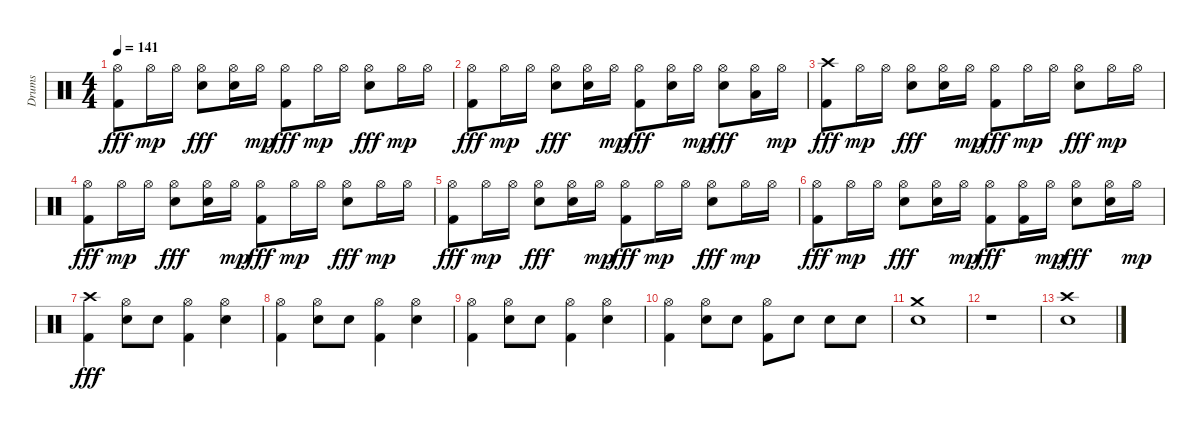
\track ("Drums" "Drums") {instrument percussion}
\staff {score}
\articulation defaults
\ts (4 4)
\tempo 141
\clef neutral
\ks c
("Hi-Hat (open)" "Kick (hit) 2").8{dy fff} "Hi-Hat (open)".16{dy mp} "Hi-Hat (open)".16 ("Hi-Hat (open)" "Electric Snare (hit)").8{dy fff} ("Hi-Hat (open)" "Electric Snare (hit)").16 "Hi-Hat (open)".16{dy mp} ("Hi-Hat (open)" "Kick (hit) 2").8{dy fff} "Hi-Hat (open)".16{dy mp} "Hi-Hat (open)".16 ("Hi-Hat (open)" "Electric Snare (hit)").8{dy fff} "Hi-Hat (open)".16{dy mp} "Hi-Hat (open)".16 |
("Hi-Hat (open)" "Kick (hit) 2").8{dy fff} "Hi-Hat (open)".16{dy mp} "Hi-Hat (open)".16 ("Hi-Hat (open)" "Electric Snare (hit)").8{dy fff} ("Hi-Hat (open)" "Electric Snare (hit)").16 "Hi-Hat (open)".16{dy mp} ("Hi-Hat (open)" "Kick (hit) 2").8{dy fff} ("Hi-Hat (open)" "Electric Snare (hit)").16 "Hi-Hat (open)".16{dy mp} ("Hi-Hat (open)" "Electric Snare (hit)").8{dy fff} ("Hi-Hat (open)" "Low Tom (hit)").16 "Hi-Hat (open)".16{dy mp} |
("Crash high (hit)" "Kick (hit) 2").8{dy fff} "Hi-Hat (open)".16{dy mp} "Hi-Hat (open)".16 ("Hi-Hat (open)" "Electric Snare (hit)").8{dy fff} ("Hi-Hat (open)" "Electric Snare (hit)").16 "Hi-Hat (open)".16{dy mp} ("Hi-Hat (open)" "Kick (hit) 2").8{dy fff} "Hi-Hat (open)".16{dy mp} "Hi-Hat (open)".16 ("Hi-Hat (open)" "Electric Snare (hit)").8{dy fff} "Hi-Hat (open)".16{dy mp} "Hi-Hat (open)".16 |
("Hi-Hat (open)" "Kick (hit) 2").8{dy fff} "Hi-Hat (open)".16{dy mp} "Hi-Hat (open)".16 ("Hi-Hat (open)" "Electric Snare (hit)").8{dy fff} ("Hi-Hat (open)" "Electric Snare (hit)").16 "Hi-Hat (open)".16{dy mp} ("Hi-Hat (open)" "Kick (hit) 2").8{dy fff} "Hi-Hat (open)".16{dy mp} "Hi-Hat (open)".16 ("Hi-Hat (open)" "Electric Snare (hit)").8{dy fff} "Hi-Hat (open)".16{dy mp} "Hi-Hat (open)".16 |
("Hi-Hat (open)" "Kick (hit) 2").8{dy fff} "Hi-Hat (open)".16{dy mp} "Hi-Hat (open)".16 ("Hi-Hat (open)" "Electric Snare (hit)").8{dy fff} ("Hi-Hat (open)" "Electric Snare (hit)").16 "Hi-Hat (open)".16{dy mp} ("Hi-Hat (open)" "Kick (hit) 2").8{dy fff} "Hi-Hat (open)".16{dy mp} "Hi-Hat (open)".16 ("Hi-Hat (open)" "Electric Snare (hit)").8{dy fff} "Hi-Hat (open)".16{dy mp} "Hi-Hat (open)".16 |
("Hi-Hat (open)" "Kick (hit) 2").8{dy fff} "Hi-Hat (open)".16{dy mp} "Hi-Hat (open)".16 ("Hi-Hat (open)" "Electric Snare (hit)").8{dy fff} ("Hi-Hat (open)" "Electric Snare (hit)").16 "Hi-Hat (open)".16{dy mp} ("Hi-Hat (open)" "Kick (hit) 2").8{dy fff} ("Hi-Hat (open)" "Kick (hit) 2").16 "Hi-Hat (open)".16{dy mp} ("Hi-Hat (open)" "Electric Snare (hit)").8{dy fff} ("Hi-Hat (open)" "Electric Snare (hit)").16 "Hi-Hat (open)".16{dy mp} |
("Crash high (hit)" "Kick (hit) 2").4{dy fff} ("Hi-Hat (open)" "Electric Snare (hit)").8 "Electric Snare (hit)".8 ("Hi-Hat (open)" "Kick (hit) 2").4 ("Hi-Hat (open)" "Electric Snare (hit)").4 |
("Hi-Hat (open)" "Kick (hit) 2").4 ("Hi-Hat (open)" "Electric Snare (hit)").8 "Electric Snare (hit)".8 ("Hi-Hat (open)" "Kick (hit) 2").4 ("Hi-Hat (open)" "Electric Snare (hit)").4 |
("Hi-Hat (open)" "Kick (hit) 2").4 ("Hi-Hat (open)" "Electric Snare (hit)").8 "Electric Snare (hit)".8 ("Hi-Hat (open)" "Kick (hit) 2").4 ("Hi-Hat (open)" "Electric Snare (hit)").4 |
("Hi-Hat (open)" "Kick (hit) 2").4 ("Hi-Hat (open)" "Electric Snare (hit)").8 "Electric Snare (hit)".8 ("Hi-Hat (open)" "Kick (hit) 2").8 "Electric Snare (hit)".8 "Electric Snare (hit)".8 "Electric Snare (hit)".8 |
("Crash medium (hit)" "Electric Snare (hit)").1 |
r.1 |
("Crash high (hit)" "Electric Snare (hit)").1
